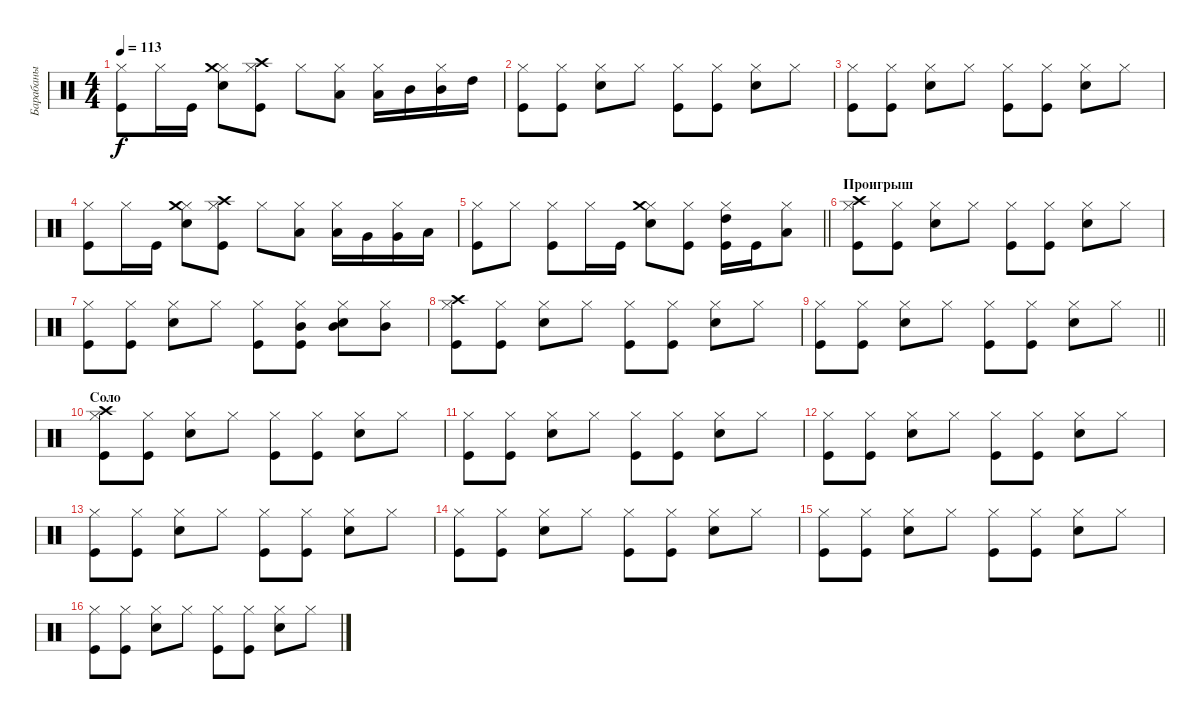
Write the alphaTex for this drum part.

\track ("Барабаны" "Барабаны") {instrument percussion}
\staff {score}
\articulation defaults
\ts (4 4)
\tempo 113
\clef neutral
\ks c
("Kick (hit)" "Hi-Hat (closed)").8{dy f} "Hi-Hat (closed)".16 "Kick (hit)".16 ("Snare (hit) 2" "Hi-Hat (closed)" "Crash medium (hit)").8 ("Kick (hit)" "Hi-Hat (closed)" "Crash high (hit)").8 "Hi-Hat (closed)".8 ("Hi-Hat (closed)" "Low Tom (hit)").8 ("Hi-Hat (closed)" "Low Tom (hit)").16 "Mid Tom (hit)".16 ("Hi-Hat (closed)" "Mid Tom (hit)").16 "High Tom (hit)".16 |
("Kick (hit)" "Hi-Hat (closed)").8 ("Kick (hit)" "Hi-Hat (closed)").8 ("Snare (hit) 2" "Hi-Hat (closed)").8 "Hi-Hat (closed)".8 ("Kick (hit)" "Hi-Hat (closed)").8 ("Kick (hit)" "Hi-Hat (closed)").8 ("Snare (hit) 2" "Hi-Hat (closed)").8 "Hi-Hat (closed)".8 |
("Kick (hit)" "Hi-Hat (closed)").8 ("Kick (hit)" "Hi-Hat (closed)").8 ("Snare (hit) 2" "Hi-Hat (closed)").8 "Hi-Hat (closed)".8 ("Kick (hit)" "Hi-Hat (closed)").8 ("Kick (hit)" "Hi-Hat (closed)").8 ("Snare (hit) 2" "Hi-Hat (closed)").8 "Hi-Hat (closed)".8 |
("Kick (hit)" "Hi-Hat (closed)").8 "Hi-Hat (closed)".16 "Kick (hit)".16 ("Snare (hit) 2" "Hi-Hat (closed)" "Crash medium (hit)").8 ("Kick (hit)" "Hi-Hat (closed)" "Crash high (hit)").8 "Hi-Hat (closed)".8 ("Hi-Hat (closed)" "Low Floor Tom (hit)").8 ("Hi-Hat (closed)" "Low Floor Tom (hit)").16 "Very Low Tom (hit)".16 ("Hi-Hat (closed)" "Very Low Tom (hit)").16 "Low Tom (hit)".16 |
\barLineRight lightlight
("Kick (hit)" "Hi-Hat (closed)").8 "Hi-Hat (closed)".8 ("Kick (hit)" "Hi-Hat (closed)").8 "Hi-Hat (closed)".16 "Kick (hit)".16 ("Snare (hit) 2" "Hi-Hat (closed)" "Crash medium (hit)").8 ("Kick (hit)" "Hi-Hat (closed)").8 ("Kick (hit)" "Hi-Hat (closed)" "High Tom (hit)").16 "Kick (hit)".16 ("Hi-Hat (closed)" "Low Floor Tom (hit)").8 |
\section ("" "Проигрыш")
("Kick (hit)" "Hi-Hat (closed)" "Crash high (hit)").8 ("Kick (hit)" "Hi-Hat (closed)").8 ("Snare (hit) 2" "Hi-Hat (closed)").8 "Hi-Hat (closed)".8 ("Kick (hit)" "Hi-Hat (closed)").8 ("Kick (hit)" "Hi-Hat (closed)").8 ("Snare (hit) 2" "Hi-Hat (closed)").8 "Hi-Hat (closed)".8 |
("Kick (hit)" "Hi-Hat (closed)").8 ("Kick (hit)" "Hi-Hat (closed)").8 ("Snare (hit) 2" "Hi-Hat (closed)").8 "Hi-Hat (closed)".8 ("Kick (hit)" "Hi-Hat (closed)").8 ("Kick (hit)" "Hi-Hat (closed)" "Mid Tom (hit)").8 ("Snare (hit) 2" "Hi-Hat (closed)" "Mid Tom (hit)").8 ("Hi-Hat (closed)" "Mid Tom (hit)").8 |
("Kick (hit)" "Hi-Hat (closed)" "Crash high (hit)").8 ("Kick (hit)" "Hi-Hat (closed)").8 ("Snare (hit) 2" "Hi-Hat (closed)").8 "Hi-Hat (closed)".8 ("Kick (hit)" "Hi-Hat (closed)").8 ("Kick (hit)" "Hi-Hat (closed)").8 ("Snare (hit) 2" "Hi-Hat (closed)").8 "Hi-Hat (closed)".8 |
\barLineRight lightlight
("Kick (hit)" "Hi-Hat (closed)").8 ("Kick (hit)" "Hi-Hat (closed)").8 ("Snare (hit) 2" "Hi-Hat (closed)").8 "Hi-Hat (closed)".8 ("Kick (hit)" "Hi-Hat (closed)").8 ("Kick (hit)" "Hi-Hat (closed)").8 ("Snare (hit) 2" "Hi-Hat (closed)").8 "Hi-Hat (closed)".8 |
\section ("" "Соло")
("Kick (hit)" "Hi-Hat (closed)" "Crash high (hit)").8 ("Kick (hit)" "Hi-Hat (closed)").8 ("Snare (hit) 2" "Hi-Hat (closed)").8 "Hi-Hat (closed)".8 ("Kick (hit)" "Hi-Hat (closed)").8 ("Kick (hit)" "Hi-Hat (closed)").8 ("Snare (hit) 2" "Hi-Hat (closed)").8 "Hi-Hat (closed)".8 |
("Kick (hit)" "Hi-Hat (closed)").8 ("Kick (hit)" "Hi-Hat (closed)").8 ("Snare (hit) 2" "Hi-Hat (closed)").8 "Hi-Hat (closed)".8 ("Kick (hit)" "Hi-Hat (closed)").8 ("Kick (hit)" "Hi-Hat (closed)").8 ("Snare (hit) 2" "Hi-Hat (closed)").8 "Hi-Hat (closed)".8 |
("Kick (hit)" "Hi-Hat (closed)").8 ("Kick (hit)" "Hi-Hat (closed)").8 ("Snare (hit) 2" "Hi-Hat (closed)").8 "Hi-Hat (closed)".8 ("Kick (hit)" "Hi-Hat (closed)").8 ("Kick (hit)" "Hi-Hat (closed)").8 ("Snare (hit) 2" "Hi-Hat (closed)").8 "Hi-Hat (closed)".8 |
("Kick (hit)" "Hi-Hat (closed)").8 ("Kick (hit)" "Hi-Hat (closed)").8 ("Snare (hit) 2" "Hi-Hat (closed)").8 "Hi-Hat (closed)".8 ("Kick (hit)" "Hi-Hat (closed)").8 ("Kick (hit)" "Hi-Hat (closed)").8 ("Snare (hit) 2" "Hi-Hat (closed)").8 "Hi-Hat (closed)".8 |
("Kick (hit)" "Hi-Hat (closed)").8 ("Kick (hit)" "Hi-Hat (closed)").8 ("Snare (hit) 2" "Hi-Hat (closed)").8 "Hi-Hat (closed)".8 ("Kick (hit)" "Hi-Hat (closed)").8 ("Kick (hit)" "Hi-Hat (closed)").8 ("Snare (hit) 2" "Hi-Hat (closed)").8 "Hi-Hat (closed)".8 |
("Kick (hit)" "Hi-Hat (closed)").8 ("Kick (hit)" "Hi-Hat (closed)").8 ("Snare (hit) 2" "Hi-Hat (closed)").8 "Hi-Hat (closed)".8 ("Kick (hit)" "Hi-Hat (closed)").8 ("Kick (hit)" "Hi-Hat (closed)").8 ("Snare (hit) 2" "Hi-Hat (closed)").8 "Hi-Hat (closed)".8 |
("Kick (hit)" "Hi-Hat (closed)").8 ("Kick (hit)" "Hi-Hat (closed)").8 ("Snare (hit) 2" "Hi-Hat (closed)").8 "Hi-Hat (closed)".8 ("Kick (hit)" "Hi-Hat (closed)").8 ("Kick (hit)" "Hi-Hat (closed)").8 ("Snare (hit) 2" "Hi-Hat (closed)").8 "Hi-Hat (closed)".8
